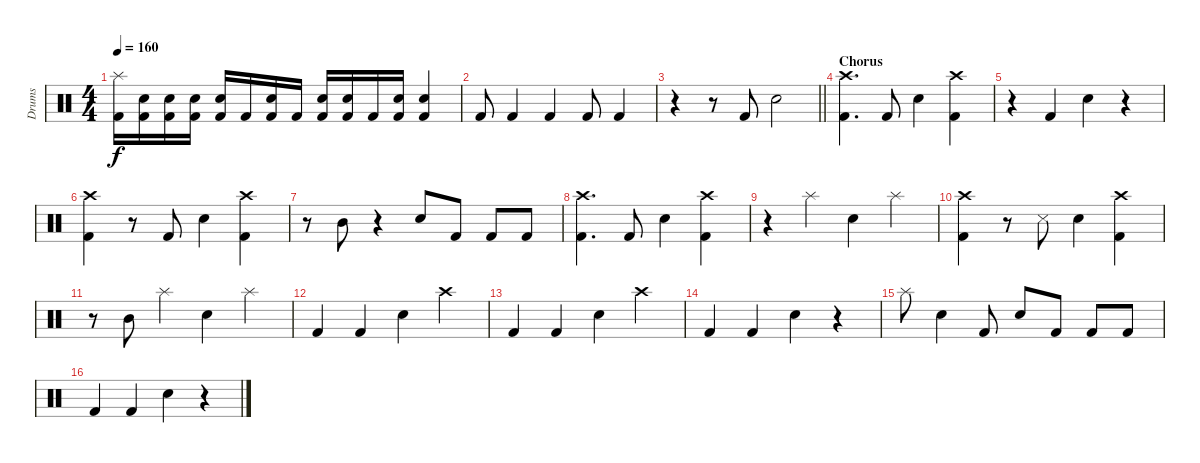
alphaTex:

\track ("Drums" "Drums") {instrument percussion}
\staff {score}
\articulation defaults
\ts (4 4)
\tempo 160
\clef neutral
\ks c
("Kick (hit) 2" "Splash (hit)").16{dy f} ("Kick (hit) 2" "Snare (hit) 2").16 ("Kick (hit) 2" "Snare (hit) 2").16 ("Kick (hit) 2" "Snare (hit) 2").16 ("Kick (hit) 2" "Snare (hit) 2").16 "Kick (hit) 2".16 ("Kick (hit) 2" "Snare (hit) 2").16 "Kick (hit) 2".16 ("Kick (hit) 2" "Snare (hit) 2").16 ("Kick (hit) 2" "Snare (hit) 2").16 "Kick (hit) 2".16 ("Kick (hit) 2" "Snare (hit) 2").16 ("Kick (hit) 2" "Snare (hit) 2").4 |
"Kick (hit) 2".8 "Kick (hit) 2".4 "Kick (hit) 2".4 "Kick (hit) 2".8 "Kick (hit) 2".4 |
\barLineRight lightlight
r.4 r.8 "Kick (hit) 2".8 "Snare (hit) 2".2 |
\section ("" "Chorus")
("Kick (hit) 2" "Crash high (hit)").4{d} "Kick (hit) 2".8 "Snare (hit) 2".4 ("Kick (hit) 2" "Crash high (hit)").4 |
r.4 "Kick (hit) 2".4 "Snare (hit) 2".4 r.4 |
("Kick (hit) 2" "Crash high (hit)").4 r.8 "Kick (hit) 2".8 "Snare (hit) 2".4 ("Kick (hit) 2" "Crash high (hit)").4 |
r.8 "Mid Tom (hit)".8 r.4 "Snare (hit) 2".8 "Kick (hit) 2".8 "Kick (hit) 2".8 "Kick (hit) 2".8 |
("Kick (hit) 2" "Crash high (hit)").4{d} "Kick (hit) 2".8 "Snare (hit) 2".4 ("Kick (hit) 2" "Crash high (hit)").4 |
r.4 "Splash (hit)".4 "Snare (hit) 2".4 "Splash (hit)".4 |
("Kick (hit) 2" "Crash high (hit)").4 r.8 "Snare (side stick) 3".8 "Snare (hit) 2".4 ("Kick (hit) 2" "Crash high (hit)").4 |
r.8 "Mid Tom (hit)".8 "Splash (hit)".4 "Snare (hit) 2".4 "Splash (hit)".4 |
"Kick (hit) 2".4 "Kick (hit) 2".4 "Snare (hit) 2".4 "Crash high (hit)".4 |
"Kick (hit) 2".4 "Kick (hit) 2".4 "Snare (hit) 2".4 "Crash high (hit)".4 |
"Kick (hit) 2".4 "Kick (hit) 2".4 "Snare (hit) 2".4 r.4 |
"Splash (hit)".8 "Snare (hit) 2".4 "Kick (hit) 2".8 "Snare (hit) 2".8 "Kick (hit) 2".8 "Kick (hit) 2".8 "Kick (hit) 2".8 |
"Kick (hit) 2".4 "Kick (hit) 2".4 "Snare (hit) 2".4 r.4
